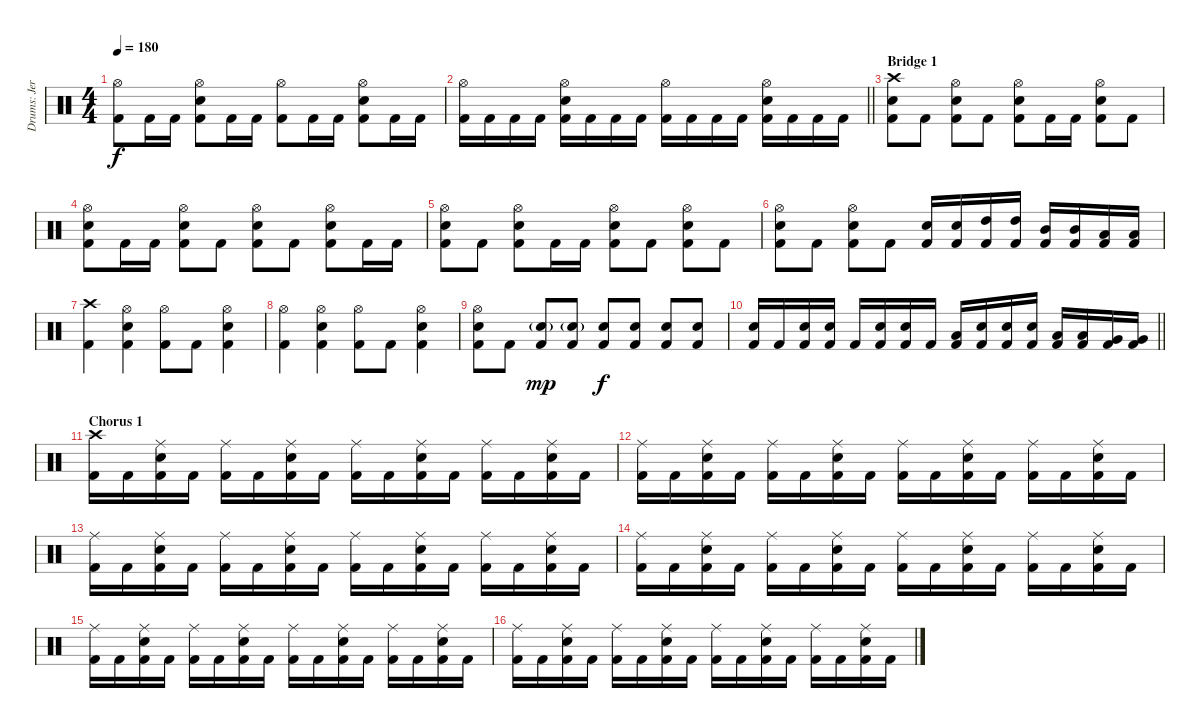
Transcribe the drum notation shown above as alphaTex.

\track ("Drums: Jere Luokkamäki" "Drums: Jer") {instrument percussion}
\staff {score}
\articulation defaults
\ts (4 4)
\tempo 180
\clef neutral
\ks aminor
("Hi-Hat (open)" "Kick (hit) 2").8{dy f} "Kick (hit) 2".16 "Kick (hit) 2".16 ("Hi-Hat (open)" "Electric Snare (hit)" "Kick (hit) 2").8 "Kick (hit) 2".16 "Kick (hit) 2".16 ("Hi-Hat (open)" "Kick (hit) 2").8 "Kick (hit) 2".16 "Kick (hit) 2".16 ("Hi-Hat (open)" "Electric Snare (hit)" "Kick (hit) 2").8 "Kick (hit) 2".16 "Kick (hit) 2".16 |
\barLineRight lightlight
("Hi-Hat (open)" "Kick (hit) 2").16 "Kick (hit) 2".16 "Kick (hit) 2".16 "Kick (hit) 2".16 ("Hi-Hat (open)" "Electric Snare (hit)" "Kick (hit) 2").16 "Kick (hit) 2".16 "Kick (hit) 2".16 "Kick (hit) 2".16 ("Hi-Hat (open)" "Kick (hit) 2").16 "Kick (hit) 2".16 "Kick (hit) 2".16 "Kick (hit) 2".16 ("Hi-Hat (open)" "Electric Snare (hit)" "Kick (hit) 2").16 "Kick (hit) 2".16 "Kick (hit) 2".16 "Kick (hit) 2".16 |
\section ("" "Bridge 1")
("Crash high (hit)" "Electric Snare (hit)" "Kick (hit) 2").8 "Kick (hit) 2".8 ("Hi-Hat (open)" "Electric Snare (hit)" "Kick (hit) 2").8 "Kick (hit) 2".8 ("Hi-Hat (open)" "Electric Snare (hit)" "Kick (hit) 2").8 "Kick (hit) 2".16 "Kick (hit) 2".16 ("Hi-Hat (open)" "Electric Snare (hit)" "Kick (hit) 2").8 "Kick (hit) 2".8 |
("Hi-Hat (open)" "Electric Snare (hit)" "Kick (hit) 2").8 "Kick (hit) 2".16 "Kick (hit) 2".16 ("Hi-Hat (open)" "Electric Snare (hit)" "Kick (hit) 2").8 "Kick (hit) 2".8 ("Hi-Hat (open)" "Electric Snare (hit)" "Kick (hit) 2").8 "Kick (hit) 2".8 ("Hi-Hat (open)" "Electric Snare (hit)" "Kick (hit) 2").8 "Kick (hit) 2".16 "Kick (hit) 2".16 |
("Hi-Hat (open)" "Electric Snare (hit)" "Kick (hit) 2").8 "Kick (hit) 2".8 ("Hi-Hat (open)" "Electric Snare (hit)" "Kick (hit) 2").8 "Kick (hit) 2".16 "Kick (hit) 2".16 ("Hi-Hat (open)" "Electric Snare (hit)" "Kick (hit) 2").8 "Kick (hit) 2".8 ("Hi-Hat (open)" "Electric Snare (hit)" "Kick (hit) 2").8 "Kick (hit) 2".8 |
("Hi-Hat (open)" "Electric Snare (hit)" "Kick (hit) 2").8 "Kick (hit) 2".8 ("Hi-Hat (open)" "Electric Snare (hit)" "Kick (hit) 2").8 "Kick (hit) 2".8 ("Electric Snare (hit)" "Kick (hit) 2").16 ("Electric Snare (hit)" "Kick (hit) 2").16 ("High Tom (hit)" "Kick (hit) 2").16 ("High Tom (hit)" "Kick (hit) 2").16 ("Mid Tom (hit)" "Kick (hit) 2").16 ("Mid Tom (hit)" "Kick (hit) 2").16 ("Low Tom (hit)" "Kick (hit) 2").16 ("Low Tom (hit)" "Kick (hit) 2").16 |
("Crash high (hit)" "Kick (hit) 2").4 ("Hi-Hat (open)" "Electric Snare (hit)" "Kick (hit) 2").4 ("Hi-Hat (open)" "Kick (hit) 2").8 "Kick (hit) 2".8 ("Hi-Hat (open)" "Electric Snare (hit)" "Kick (hit) 2").4 |
("Hi-Hat (open)" "Kick (hit) 2").4 ("Hi-Hat (open)" "Electric Snare (hit)" "Kick (hit) 2").4 ("Hi-Hat (open)" "Kick (hit) 2").8 "Kick (hit) 2".8 ("Hi-Hat (open)" "Electric Snare (hit)" "Kick (hit) 2").4 |
("Hi-Hat (open)" "Electric Snare (hit)" "Kick (hit) 2").8 "Kick (hit) 2".8 ("Electric Snare (hit)"{g} "Kick (hit) 2").8{dy mp} ("Electric Snare (hit)"{g} "Kick (hit) 2").8 ("Electric Snare (hit)" "Kick (hit) 2").8{dy f} ("Electric Snare (hit)" "Kick (hit) 2").8 ("Electric Snare (hit)" "Kick (hit) 2").8 ("Electric Snare (hit)" "Kick (hit) 2").8 |
\barLineRight lightlight
("Electric Snare (hit)" "Kick (hit) 2").16 "Kick (hit) 2".16 ("Electric Snare (hit)" "Kick (hit) 2").16 ("Electric Snare (hit)" "Kick (hit) 2").16 "Kick (hit) 2".16 ("Electric Snare (hit)" "Kick (hit) 2").16 ("Electric Snare (hit)" "Kick (hit) 2").16 "Kick (hit) 2".16 ("Low Tom (hit)" "Kick (hit) 2").16 ("Electric Snare (hit)" "Kick (hit) 2").16 ("Electric Snare (hit)" "Kick (hit) 2").16 ("Electric Snare (hit)" "Kick (hit) 2").16 ("Low Tom (hit)" "Kick (hit) 2").16 ("Low Tom (hit)" "Kick (hit) 2").16 ("Very Low Tom (hit)" "Kick (hit) 2").16 ("Very Low Tom (hit)" "Kick (hit) 2").16 |
\section ("" "Chorus 1")
("Crash high (hit)" "Kick (hit) 2").16 "Kick (hit) 2".16 ("Ride (middle)" "Electric Snare (hit)" "Kick (hit) 2").16 "Kick (hit) 2".16 ("Ride (middle)" "Kick (hit) 2").16 "Kick (hit) 2".16 ("Ride (middle)" "Electric Snare (hit)" "Kick (hit) 2").16 "Kick (hit) 2".16 ("Ride (middle)" "Kick (hit) 2").16 "Kick (hit) 2".16 ("Ride (middle)" "Electric Snare (hit)" "Kick (hit) 2").16 "Kick (hit) 2".16 ("Ride (middle)" "Kick (hit) 2").16 "Kick (hit) 2".16 ("Ride (middle)" "Electric Snare (hit)" "Kick (hit) 2").16 "Kick (hit) 2".16 |
("Ride (middle)" "Kick (hit) 2").16 "Kick (hit) 2".16 ("Ride (middle)" "Electric Snare (hit)" "Kick (hit) 2").16 "Kick (hit) 2".16 ("Ride (middle)" "Kick (hit) 2").16 "Kick (hit) 2".16 ("Ride (middle)" "Electric Snare (hit)" "Kick (hit) 2").16 "Kick (hit) 2".16 ("Ride (middle)" "Kick (hit) 2").16 "Kick (hit) 2".16 ("Ride (middle)" "Electric Snare (hit)" "Kick (hit) 2").16 "Kick (hit) 2".16 ("Ride (middle)" "Kick (hit) 2").16 "Kick (hit) 2".16 ("Ride (middle)" "Electric Snare (hit)" "Kick (hit) 2").16 "Kick (hit) 2".16 |
("Ride (middle)" "Kick (hit) 2").16 "Kick (hit) 2".16 ("Ride (middle)" "Electric Snare (hit)" "Kick (hit) 2").16 "Kick (hit) 2".16 ("Ride (middle)" "Kick (hit) 2").16 "Kick (hit) 2".16 ("Ride (middle)" "Electric Snare (hit)" "Kick (hit) 2").16 "Kick (hit) 2".16 ("Ride (middle)" "Kick (hit) 2").16 "Kick (hit) 2".16 ("Ride (middle)" "Electric Snare (hit)" "Kick (hit) 2").16 "Kick (hit) 2".16 ("Ride (middle)" "Kick (hit) 2").16 "Kick (hit) 2".16 ("Ride (middle)" "Electric Snare (hit)" "Kick (hit) 2").16 "Kick (hit) 2".16 |
("Ride (middle)" "Kick (hit) 2").16 "Kick (hit) 2".16 ("Ride (middle)" "Electric Snare (hit)" "Kick (hit) 2").16 "Kick (hit) 2".16 ("Ride (middle)" "Kick (hit) 2").16 "Kick (hit) 2".16 ("Ride (middle)" "Electric Snare (hit)" "Kick (hit) 2").16 "Kick (hit) 2".16 ("Ride (middle)" "Kick (hit) 2").16 "Kick (hit) 2".16 ("Ride (middle)" "Electric Snare (hit)" "Kick (hit) 2").16 "Kick (hit) 2".16 ("Ride (middle)" "Kick (hit) 2").16 "Kick (hit) 2".16 ("Ride (middle)" "Electric Snare (hit)" "Kick (hit) 2").16 "Kick (hit) 2".16 |
("Ride (middle)" "Kick (hit) 2").16 "Kick (hit) 2".16 ("Ride (middle)" "Electric Snare (hit)" "Kick (hit) 2").16 "Kick (hit) 2".16 ("Ride (middle)" "Kick (hit) 2").16 "Kick (hit) 2".16 ("Ride (middle)" "Electric Snare (hit)" "Kick (hit) 2").16 "Kick (hit) 2".16 ("Ride (middle)" "Kick (hit) 2").16 "Kick (hit) 2".16 ("Ride (middle)" "Electric Snare (hit)" "Kick (hit) 2").16 "Kick (hit) 2".16 ("Ride (middle)" "Kick (hit) 2").16 "Kick (hit) 2".16 ("Ride (middle)" "Electric Snare (hit)" "Kick (hit) 2").16 "Kick (hit) 2".16 |
("Ride (middle)" "Kick (hit) 2").16 "Kick (hit) 2".16 ("Ride (middle)" "Electric Snare (hit)" "Kick (hit) 2").16 "Kick (hit) 2".16 ("Ride (middle)" "Kick (hit) 2").16 "Kick (hit) 2".16 ("Ride (middle)" "Electric Snare (hit)" "Kick (hit) 2").16 "Kick (hit) 2".16 ("Ride (middle)" "Kick (hit) 2").16 "Kick (hit) 2".16 ("Ride (middle)" "Electric Snare (hit)" "Kick (hit) 2").16 "Kick (hit) 2".16 ("Ride (middle)" "Kick (hit) 2").16 "Kick (hit) 2".16 ("Ride (middle)" "Electric Snare (hit)" "Kick (hit) 2").16 "Kick (hit) 2".16
